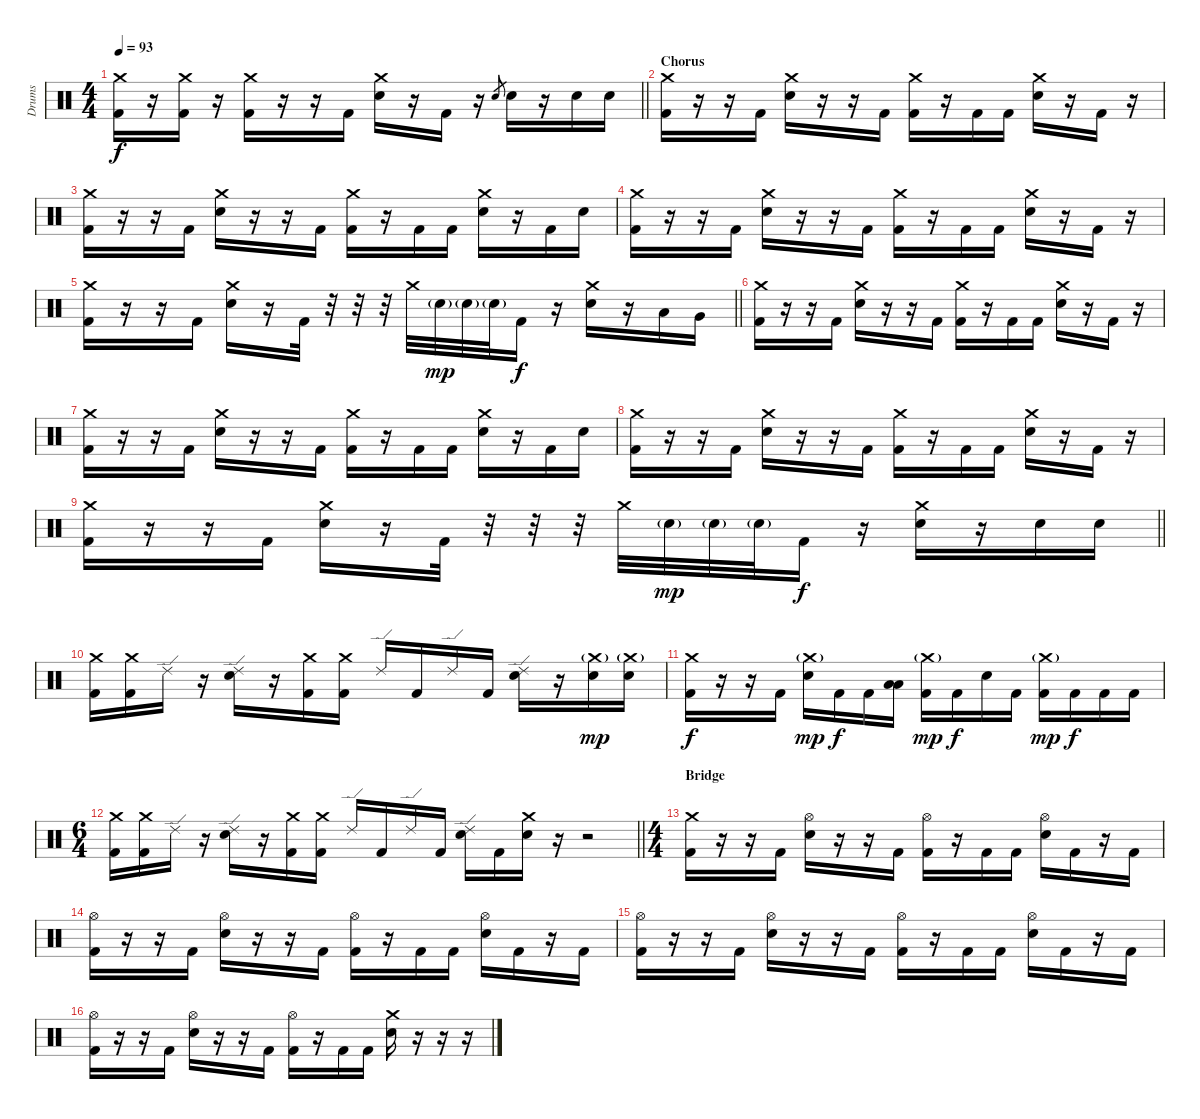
\track ("Drums" "Drums") {instrument percussion}
\staff {score}
\articulation defaults
\ts (4 4)
\tempo 93
\clef neutral
\barLineRight lightlight
\ks c
("Crash medium (hit)" "Kick (hit) 2").16{dy f} r.16 ("Crash medium (hit)" "Kick (hit) 2").16 r.16 ("Crash medium (hit)" "Kick (hit) 2").16 r.16 r.16 "Kick (hit) 2".16 ("Crash medium (hit)" "Electric Snare (hit)").16 r.16 "Kick (hit) 2".16 r.16 "Electric Snare (hit)".8{gr} "Electric Snare (hit)".16 r.16 "Electric Snare (hit)".16 "Electric Snare (hit)".16 |
\section ("" "Chorus")
("Crash medium (hit)" "Kick (hit) 2").16 r.16 r.16 "Kick (hit) 2".16 ("Crash medium (hit)" "Electric Snare (hit)").16 r.16 r.16 "Kick (hit) 2".16 ("Crash medium (hit)" "Kick (hit) 2").16 r.16 "Kick (hit) 2".16 "Kick (hit) 2".16 ("Crash medium (hit)" "Electric Snare (hit)").16 r.16 "Kick (hit) 2".16 r.16 |
("Crash medium (hit)" "Kick (hit) 2").16 r.16 r.16 "Kick (hit) 2".16 ("Crash medium (hit)" "Electric Snare (hit)").16 r.16 r.16 "Kick (hit) 2".16 ("Crash medium (hit)" "Kick (hit) 2").16 r.16 "Kick (hit) 2".16 "Kick (hit) 2".16 ("Crash medium (hit)" "Electric Snare (hit)").16 r.16 "Kick (hit) 2".16 "Electric Snare (hit)".16 |
("Crash medium (hit)" "Kick (hit) 2").16 r.16 r.16 "Kick (hit) 2".16 ("Crash medium (hit)" "Electric Snare (hit)").16 r.16 r.16 "Kick (hit) 2".16 ("Crash medium (hit)" "Kick (hit) 2").16 r.16 "Kick (hit) 2".16 "Kick (hit) 2".16 ("Crash medium (hit)" "Electric Snare (hit)").16 r.16 "Kick (hit) 2".16 r.16 |
\barLineRight lightlight
("Crash medium (hit)" "Kick (hit) 2").16 r.16 r.16 "Kick (hit) 2".16 ("Crash medium (hit)" "Electric Snare (hit)").16 r.16 "Kick (hit) 2".32 r.32 r.32 r.32 "Crash medium (hit)".32 "Electric Snare (hit)"{g}.32{dy mp} "Electric Snare (hit)"{g}.32 "Electric Snare (hit)"{g}.32 "Kick (hit) 2".16{dy f} r.16 ("Crash medium (hit)" "Electric Snare (hit)").16 r.16 "Low Tom (hit)".16 "Very Low Tom (hit)".16 |
("Crash medium (hit)" "Kick (hit) 2").16 r.16 r.16 "Kick (hit) 2".16 ("Crash medium (hit)" "Electric Snare (hit)").16 r.16 r.16 "Kick (hit) 2".16 ("Crash medium (hit)" "Kick (hit) 2").16 r.16 "Kick (hit) 2".16 "Kick (hit) 2".16 ("Crash medium (hit)" "Electric Snare (hit)").16 r.16 "Kick (hit) 2".16 r.16 |
("Crash medium (hit)" "Kick (hit) 2").16 r.16 r.16 "Kick (hit) 2".16 ("Crash medium (hit)" "Electric Snare (hit)").16 r.16 r.16 "Kick (hit) 2".16 ("Crash medium (hit)" "Kick (hit) 2").16 r.16 "Kick (hit) 2".16 "Kick (hit) 2".16 ("Crash medium (hit)" "Electric Snare (hit)").16 r.16 "Kick (hit) 2".16 "Electric Snare (hit)".16 |
("Crash medium (hit)" "Kick (hit) 2").16 r.16 r.16 "Kick (hit) 2".16 ("Crash medium (hit)" "Electric Snare (hit)").16 r.16 r.16 "Kick (hit) 2".16 ("Crash medium (hit)" "Kick (hit) 2").16 r.16 "Kick (hit) 2".16 "Kick (hit) 2".16 ("Crash medium (hit)" "Electric Snare (hit)").16 r.16 "Kick (hit) 2".16 r.16 |
\barLineRight lightlight
("Crash medium (hit)" "Kick (hit) 2").16 r.16 r.16 "Kick (hit) 2".16 ("Crash medium (hit)" "Electric Snare (hit)").16 r.16 "Kick (hit) 2".32 r.32 r.32 r.32 "Crash medium (hit)".32 "Electric Snare (hit)"{g}.32{dy mp} "Electric Snare (hit)"{g}.32 "Electric Snare (hit)"{g}.32 "Kick (hit) 2".16{dy f} r.16 ("Crash medium (hit)" "Electric Snare (hit)").16 r.16 "Electric Snare (hit)".16 "Electric Snare (hit)".16 |
\section ("" "")
("Crash medium (hit)" "Kick (hit) 2").16 ("Crash medium (hit)" "Kick (hit) 2").16 "Ride (edge) 2".16 r.16 ("Ride (edge) 2" "Electric Snare (hit)").16 r.16 ("Crash medium (hit)" "Kick (hit) 2").16 ("Crash medium (hit)" "Kick (hit) 2").16 "Ride (edge) 2".16 "Kick (hit) 2".16 "Ride (edge) 2".16 "Kick (hit) 2".16 ("Ride (edge) 2" "Electric Snare (hit)").16 r.16 ("Crash medium (hit)"{g} "Electric Snare (hit)").16{dy mp} ("Crash medium (hit)"{g} "Electric Snare (hit)").16 |
("Crash medium (hit)" "Kick (hit) 2").16{dy f} r.16 r.16 "Kick (hit) 2".16 ("Crash medium (hit)"{g} "Electric Snare (hit)").16{dy mp} "Kick (hit) 2".16{dy f} "Kick (hit) 2".16 ("Low Tom (hit)" "Low Tom (hit)").16 ("Crash medium (hit)"{g} "Kick (hit) 2").16{dy mp} "Kick (hit) 2".16{dy f} "Electric Snare (hit)".16 "Kick (hit) 2".16 ("Crash medium (hit)"{g} "Kick (hit) 2").16{dy mp} "Kick (hit) 2".16{dy f} "Kick (hit) 2".16 "Kick (hit) 2".16 |
\ts (6 4)
\barLineRight lightlight
("Crash medium (hit)" "Kick (hit) 2").16 ("Crash medium (hit)" "Kick (hit) 2").16 "Ride (edge) 2".16 r.16 ("Ride (edge) 2" "Electric Snare (hit)").16 r.16 ("Crash medium (hit)" "Kick (hit) 2").16 ("Crash medium (hit)" "Kick (hit) 2").16 "Ride (edge) 2".16 "Kick (hit) 2".16 "Ride (edge) 2".16 "Kick (hit) 2".16 ("Ride (edge) 2" "Electric Snare (hit)").16 "Kick (hit) 2".16 ("Crash medium (hit)" "Electric Snare (hit)").16 r.16 r.2 |
\ts (4 4)
\section ("" "Bridge")
("Crash medium (hit)" "Kick (hit) 2").16 r.16 r.16 "Kick (hit) 2".16 ("Hi-Hat (open)" "Electric Snare (hit)").16 r.16 r.16 "Kick (hit) 2".16 ("Hi-Hat (open)" "Kick (hit) 2").16 r.16 "Kick (hit) 2".16 "Kick (hit) 2".16 ("Hi-Hat (open)" "Electric Snare (hit)").16 "Kick (hit) 2".16 r.16 "Kick (hit) 2".16 |
("Hi-Hat (open)" "Kick (hit) 2").16 r.16 r.16 "Kick (hit) 2".16 ("Hi-Hat (open)" "Electric Snare (hit)").16 r.16 r.16 "Kick (hit) 2".16 ("Hi-Hat (open)" "Kick (hit) 2").16 r.16 "Kick (hit) 2".16 "Kick (hit) 2".16 ("Hi-Hat (open)" "Electric Snare (hit)").16 "Kick (hit) 2".16 r.16 "Kick (hit) 2".16 |
("Hi-Hat (open)" "Kick (hit) 2").16 r.16 r.16 "Kick (hit) 2".16 ("Hi-Hat (open)" "Electric Snare (hit)").16 r.16 r.16 "Kick (hit) 2".16 ("Hi-Hat (open)" "Kick (hit) 2").16 r.16 "Kick (hit) 2".16 "Kick (hit) 2".16 ("Hi-Hat (open)" "Electric Snare (hit)").16 "Kick (hit) 2".16 r.16 "Kick (hit) 2".16 |
("Hi-Hat (open)" "Kick (hit) 2").16 r.16 r.16 "Kick (hit) 2".16 ("Hi-Hat (open)" "Electric Snare (hit)").16 r.16 r.16 "Kick (hit) 2".16 ("Hi-Hat (open)" "Kick (hit) 2").16 r.16 "Kick (hit) 2".16 "Kick (hit) 2".16 ("Crash medium (hit)" "Electric Snare (hit)").16 r.16 r.16 r.16
